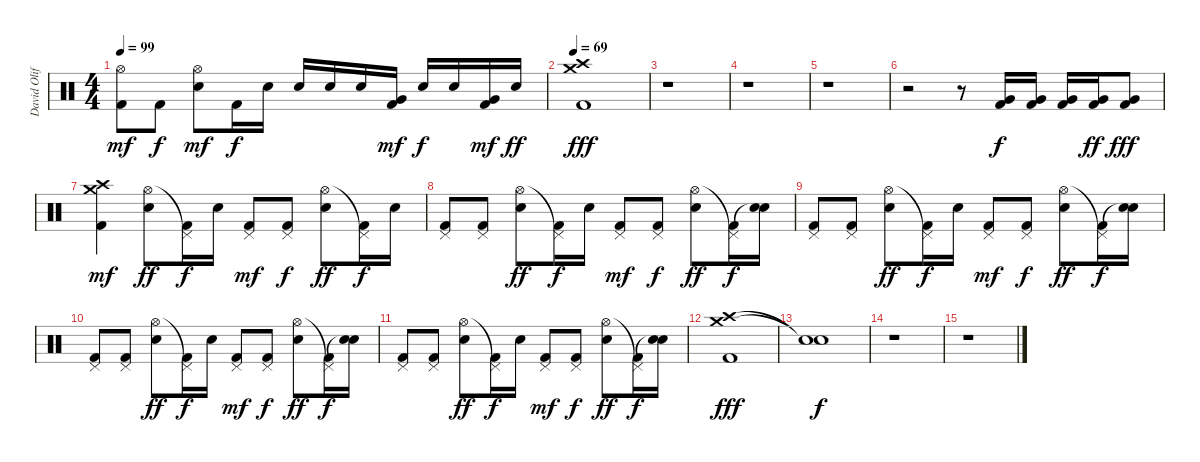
\track ("David Oliffe" "David Olif") {instrument percussion}
\staff {score}
\articulation defaults
\ts (4 4)
\tempo 99
\clef neutral
\ks c
("Hi-Hat (open)" "Kick (hit) 2").8{dy mf} "Kick (hit) 2".8{dy f} ("Hi-Hat (open)" "Electric Snare (hit)").8{dy mf} "Kick (hit) 2".16{dy f} "Electric Snare (hit)".16 "Electric Snare (hit)".16 "Electric Snare (hit)".16 "Electric Snare (hit)".16 ("Very Low Tom (hit)" "Kick (hit) 2").16{dy mf} "Electric Snare (hit)".16{dy f} "Electric Snare (hit)".16 ("Very Low Tom (hit)" "Kick (hit) 2").16{dy mf} "Electric Snare (hit)".16{dy ff} |
\tempo 69
("Crash medium (hit)" "Crash high (hit)" "Kick (hit) 2").1{dy fff} |
r.1 |
r.1 |
r.1 |
r.2 r.8 ("Very Low Tom (hit)" "Kick (hit) 2").16{dy f} ("Very Low Tom (hit)" "Kick (hit) 2").16 ("Very Low Tom (hit)" "Kick (hit) 2").16 ("Very Low Tom (hit)" "Kick (hit) 2").16{dy ff} ("Very Low Tom (hit)" "Kick (hit) 2").8{dy fff} |
("Crash high (hit)" "Crash medium (hit)" "Kick (hit) 2").4{dy mf} ("Hi-Hat (open)" "Electric Snare (hit)").8{dy ff} ("Pedal Hi-Hat (hit)"{t} "Kick (hit) 2").16{dy f} "Electric Snare (hit)".16 ("Pedal Hi-Hat (hit)" "Kick (hit) 2").8{dy mf} ("Pedal Hi-Hat (hit)" "Kick (hit) 2").8{dy f} ("Hi-Hat (open)" "Electric Snare (hit)").8{dy ff} ("Pedal Hi-Hat (hit)"{t} "Kick (hit) 2").16{dy f} "Electric Snare (hit)".16 |
("Pedal Hi-Hat (hit)" "Kick (hit) 2").8 ("Pedal Hi-Hat (hit)" "Kick (hit) 2").8 ("Hi-Hat (open)" "Electric Snare (hit)").8{dy ff} ("Pedal Hi-Hat (hit)"{t} "Kick (hit) 2").16{dy f} "Electric Snare (hit)".16 ("Pedal Hi-Hat (hit)" "Kick (hit) 2").8{dy mf} ("Pedal Hi-Hat (hit)" "Kick (hit) 2").8{dy f} ("Hi-Hat (open)" "Electric Snare (hit)").8{dy ff} ("Pedal Hi-Hat (hit)"{t} "Kick (hit) 2").16{dy f} ("Snare (hit)"{t} "Electric Snare (hit)").16 |
("Pedal Hi-Hat (hit)" "Kick (hit) 2").8 ("Pedal Hi-Hat (hit)" "Kick (hit) 2").8 ("Hi-Hat (open)" "Electric Snare (hit)").8{dy ff} ("Pedal Hi-Hat (hit)"{t} "Kick (hit) 2").16{dy f} "Electric Snare (hit)".16 ("Pedal Hi-Hat (hit)" "Kick (hit) 2").8{dy mf} ("Pedal Hi-Hat (hit)" "Kick (hit) 2").8{dy f} ("Hi-Hat (open)" "Electric Snare (hit)").8{dy ff} ("Pedal Hi-Hat (hit)"{t} "Kick (hit) 2").16{dy f} ("Snare (hit)"{t} "Electric Snare (hit)").16 |
("Pedal Hi-Hat (hit)" "Kick (hit) 2").8 ("Pedal Hi-Hat (hit)" "Kick (hit) 2").8 ("Hi-Hat (open)" "Electric Snare (hit)").8{dy ff} ("Pedal Hi-Hat (hit)"{t} "Kick (hit) 2").16{dy f} "Electric Snare (hit)".16 ("Pedal Hi-Hat (hit)" "Kick (hit) 2").8{dy mf} ("Pedal Hi-Hat (hit)" "Kick (hit) 2").8{dy f} ("Hi-Hat (open)" "Electric Snare (hit)").8{dy ff} ("Pedal Hi-Hat (hit)"{t} "Kick (hit) 2").16{dy f} ("Snare (hit)"{t} "Electric Snare (hit)").16 |
("Pedal Hi-Hat (hit)" "Kick (hit) 2").8 ("Pedal Hi-Hat (hit)" "Kick (hit) 2").8 ("Hi-Hat (open)" "Electric Snare (hit)").8{dy ff} ("Pedal Hi-Hat (hit)"{t} "Kick (hit) 2").16{dy f} "Electric Snare (hit)".16 ("Pedal Hi-Hat (hit)" "Kick (hit) 2").8{dy mf} ("Pedal Hi-Hat (hit)" "Kick (hit) 2").8{dy f} ("Hi-Hat (open)" "Electric Snare (hit)").8{dy ff} ("Pedal Hi-Hat (hit)"{t} "Kick (hit) 2").16{dy f} ("Snare (hit)"{t} "Electric Snare (hit)").16 |
("Crash high (hit)" "Crash medium (hit)" "Kick (hit) 2").1{dy fff} |
("Snare (hit)"{t} "Snare (hit)"{t}).1{dy f} |
r.1 |
r.1
